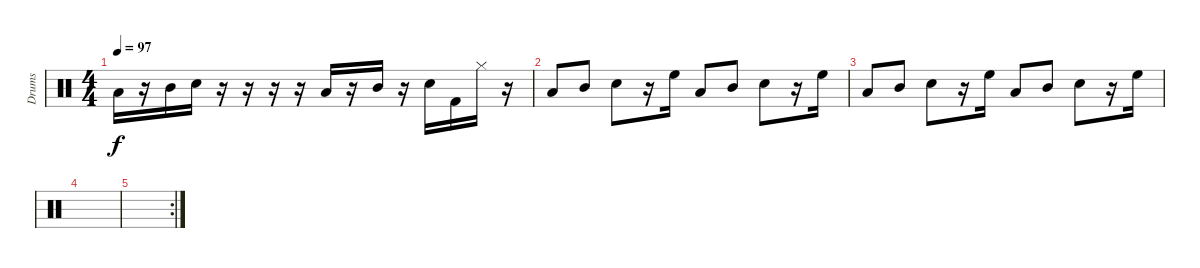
\track ("Drums" "Drums") {instrument percussion}
\staff {score}
\articulation defaults
\ts (4 4)
\tempo 97
\clef neutral
\ks c "Low Tom (hit)".16{dy f}
r.16 "Mid Tom (hit)".16 "Snare (hit) 2".16 r.16 r.16 r.16 r.16 "Low Tom (hit)".16 r.16 "Mid Tom (hit)".16 r.16 "Snare (hit) 2".16 "Kick (hit) 2".16 "Hi-Hat (closed)".16 r.16 |
"Low Tom (hit)".8 "Mid Tom (hit)".8 "Snare (hit) 2".8 r.16 "High Floor Tom (hit)".16 "Low Tom (hit)".8 "Mid Tom (hit)".8 "Snare (hit) 2".8 r.16 "High Floor Tom (hit)".16 |
"Low Tom (hit)".8 "Mid Tom (hit)".8 "Snare (hit) 2".8 r.16 "High Floor Tom (hit)".16 "Low Tom (hit)".8 "Mid Tom (hit)".8 "Snare (hit) 2".8 r.16 "High Floor Tom (hit)".16 |
|
\rc 2
